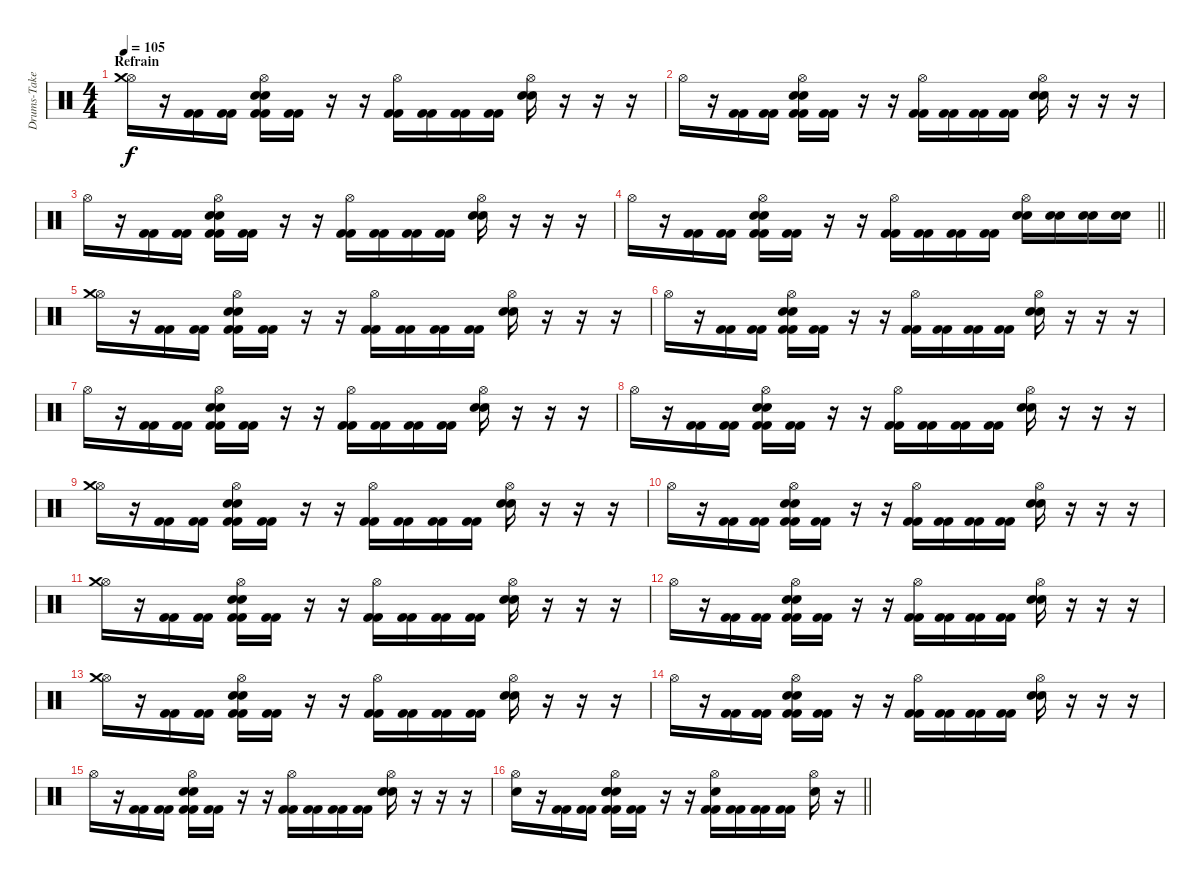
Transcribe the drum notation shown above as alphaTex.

\track ("Drums-Take the midi one!" "Drums-Take") {instrument percussion}
\staff {score}
\articulation defaults
\ts (4 4)
\section ("" "Refrain")
\tempo 105
\clef neutral
\ks c
("Hi-Hat (open)" "Crash medium (hit)").16{dy f} r.16 ("Kick (hit) 2" "Kick (hit) 2").16 ("Kick (hit) 2" "Kick (hit) 2").16 ("Kick (hit) 2" "Kick (hit) 2" "Hi-Hat (open)" "Electric Snare (hit)" "Electric Snare (hit)").16 ("Kick (hit) 2" "Kick (hit) 2").16 r.16 r.16 ("Kick (hit) 2" "Kick (hit) 2" "Hi-Hat (open)").16 ("Kick (hit) 2" "Kick (hit) 2").16 ("Kick (hit) 2" "Kick (hit) 2").16 ("Kick (hit) 2" "Kick (hit) 2").16 ("Hi-Hat (open)" "Electric Snare (hit)" "Electric Snare (hit)").16 r.16 r.16 r.16 |
"Hi-Hat (open)".16 r.16 ("Kick (hit) 2" "Kick (hit) 2").16 ("Kick (hit) 2" "Kick (hit) 2").16 ("Kick (hit) 2" "Kick (hit) 2" "Hi-Hat (open)" "Electric Snare (hit)" "Electric Snare (hit)").16 ("Kick (hit) 2" "Kick (hit) 2").16 r.16 r.16 ("Kick (hit) 2" "Kick (hit) 2" "Hi-Hat (open)").16 ("Kick (hit) 2" "Kick (hit) 2").16 ("Kick (hit) 2" "Kick (hit) 2").16 ("Kick (hit) 2" "Kick (hit) 2").16 ("Hi-Hat (open)" "Electric Snare (hit)" "Electric Snare (hit)").16 r.16 r.16 r.16 |
"Hi-Hat (open)".16 r.16 ("Kick (hit) 2" "Kick (hit) 2").16 ("Kick (hit) 2" "Kick (hit) 2").16 ("Kick (hit) 2" "Kick (hit) 2" "Hi-Hat (open)" "Electric Snare (hit)" "Electric Snare (hit)").16 ("Kick (hit) 2" "Kick (hit) 2").16 r.16 r.16 ("Kick (hit) 2" "Kick (hit) 2" "Hi-Hat (open)").16 ("Kick (hit) 2" "Kick (hit) 2").16 ("Kick (hit) 2" "Kick (hit) 2").16 ("Kick (hit) 2" "Kick (hit) 2").16 ("Hi-Hat (open)" "Electric Snare (hit)" "Electric Snare (hit)").16 r.16 r.16 r.16 |
\barLineRight lightlight "Hi-Hat (open)".16
r.16 ("Kick (hit) 2" "Kick (hit) 2").16 ("Kick (hit) 2" "Kick (hit) 2").16 ("Kick (hit) 2" "Kick (hit) 2" "Hi-Hat (open)" "Electric Snare (hit)" "Electric Snare (hit)").16 ("Kick (hit) 2" "Kick (hit) 2").16 r.16 r.16 ("Kick (hit) 2" "Kick (hit) 2" "Hi-Hat (open)").16 ("Kick (hit) 2" "Kick (hit) 2").16 ("Kick (hit) 2" "Kick (hit) 2").16 ("Kick (hit) 2" "Kick (hit) 2").16 ("Hi-Hat (open)" "Snare (hit) 2" "Snare (hit) 2").16 ("Snare (hit) 2" "Snare (hit) 2").16 ("Snare (hit) 2" "Snare (hit) 2").16 ("Snare (hit) 2" "Snare (hit) 2").16 |
("Hi-Hat (open)" "Crash medium (hit)").16 r.16 ("Kick (hit) 2" "Kick (hit) 2").16 ("Kick (hit) 2" "Kick (hit) 2").16 ("Kick (hit) 2" "Kick (hit) 2" "Hi-Hat (open)" "Electric Snare (hit)" "Electric Snare (hit)").16 ("Kick (hit) 2" "Kick (hit) 2").16 r.16 r.16 ("Kick (hit) 2" "Kick (hit) 2" "Hi-Hat (open)").16 ("Kick (hit) 2" "Kick (hit) 2").16 ("Kick (hit) 2" "Kick (hit) 2").16 ("Kick (hit) 2" "Kick (hit) 2").16 ("Hi-Hat (open)" "Electric Snare (hit)" "Electric Snare (hit)").16 r.16 r.16 r.16 |
"Hi-Hat (open)".16 r.16 ("Kick (hit) 2" "Kick (hit) 2").16 ("Kick (hit) 2" "Kick (hit) 2").16 ("Kick (hit) 2" "Kick (hit) 2" "Hi-Hat (open)" "Electric Snare (hit)" "Electric Snare (hit)").16 ("Kick (hit) 2" "Kick (hit) 2").16 r.16 r.16 ("Kick (hit) 2" "Kick (hit) 2" "Hi-Hat (open)").16 ("Kick (hit) 2" "Kick (hit) 2").16 ("Kick (hit) 2" "Kick (hit) 2").16 ("Kick (hit) 2" "Kick (hit) 2").16 ("Hi-Hat (open)" "Electric Snare (hit)" "Electric Snare (hit)").16 r.16 r.16 r.16 |
"Hi-Hat (open)".16 r.16 ("Kick (hit) 2" "Kick (hit) 2").16 ("Kick (hit) 2" "Kick (hit) 2").16 ("Kick (hit) 2" "Kick (hit) 2" "Hi-Hat (open)" "Electric Snare (hit)" "Electric Snare (hit)").16 ("Kick (hit) 2" "Kick (hit) 2").16 r.16 r.16 ("Kick (hit) 2" "Kick (hit) 2" "Hi-Hat (open)").16 ("Kick (hit) 2" "Kick (hit) 2").16 ("Kick (hit) 2" "Kick (hit) 2").16 ("Kick (hit) 2" "Kick (hit) 2").16 ("Hi-Hat (open)" "Electric Snare (hit)" "Electric Snare (hit)").16 r.16 r.16 r.16 |
"Hi-Hat (open)".16 r.16 ("Kick (hit) 2" "Kick (hit) 2").16 ("Kick (hit) 2" "Kick (hit) 2").16 ("Kick (hit) 2" "Kick (hit) 2" "Hi-Hat (open)" "Electric Snare (hit)" "Electric Snare (hit)").16 ("Kick (hit) 2" "Kick (hit) 2").16 r.16 r.16 ("Kick (hit) 2" "Kick (hit) 2" "Hi-Hat (open)").16 ("Kick (hit) 2" "Kick (hit) 2").16 ("Kick (hit) 2" "Kick (hit) 2").16 ("Kick (hit) 2" "Kick (hit) 2").16 ("Hi-Hat (open)" "Electric Snare (hit)" "Electric Snare (hit)").16 r.16 r.16 r.16 |
("Hi-Hat (open)" "Crash medium (hit)").16 r.16 ("Kick (hit) 2" "Kick (hit) 2").16 ("Kick (hit) 2" "Kick (hit) 2").16 ("Kick (hit) 2" "Kick (hit) 2" "Hi-Hat (open)" "Electric Snare (hit)" "Electric Snare (hit)").16 ("Kick (hit) 2" "Kick (hit) 2").16 r.16 r.16 ("Kick (hit) 2" "Kick (hit) 2" "Hi-Hat (open)").16 ("Kick (hit) 2" "Kick (hit) 2").16 ("Kick (hit) 2" "Kick (hit) 2").16 ("Kick (hit) 2" "Kick (hit) 2").16 ("Hi-Hat (open)" "Electric Snare (hit)" "Electric Snare (hit)").16 r.16 r.16 r.16 |
"Hi-Hat (open)".16 r.16 ("Kick (hit) 2" "Kick (hit) 2").16 ("Kick (hit) 2" "Kick (hit) 2").16 ("Kick (hit) 2" "Kick (hit) 2" "Hi-Hat (open)" "Electric Snare (hit)" "Electric Snare (hit)").16 ("Kick (hit) 2" "Kick (hit) 2").16 r.16 r.16 ("Kick (hit) 2" "Kick (hit) 2" "Hi-Hat (open)").16 ("Kick (hit) 2" "Kick (hit) 2").16 ("Kick (hit) 2" "Kick (hit) 2").16 ("Kick (hit) 2" "Kick (hit) 2").16 ("Hi-Hat (open)" "Electric Snare (hit)" "Electric Snare (hit)").16 r.16 r.16 r.16 |
("Hi-Hat (open)" "Crash medium (hit)").16 r.16 ("Kick (hit) 2" "Kick (hit) 2").16 ("Kick (hit) 2" "Kick (hit) 2").16 ("Kick (hit) 2" "Kick (hit) 2" "Hi-Hat (open)" "Electric Snare (hit)" "Electric Snare (hit)").16 ("Kick (hit) 2" "Kick (hit) 2").16 r.16 r.16 ("Kick (hit) 2" "Kick (hit) 2" "Hi-Hat (open)").16 ("Kick (hit) 2" "Kick (hit) 2").16 ("Kick (hit) 2" "Kick (hit) 2").16 ("Kick (hit) 2" "Kick (hit) 2").16 ("Hi-Hat (open)" "Electric Snare (hit)" "Electric Snare (hit)").16 r.16 r.16 r.16 |
"Hi-Hat (open)".16 r.16 ("Kick (hit) 2" "Kick (hit) 2").16 ("Kick (hit) 2" "Kick (hit) 2").16 ("Kick (hit) 2" "Kick (hit) 2" "Hi-Hat (open)" "Electric Snare (hit)" "Electric Snare (hit)").16 ("Kick (hit) 2" "Kick (hit) 2").16 r.16 r.16 ("Kick (hit) 2" "Kick (hit) 2" "Hi-Hat (open)").16 ("Kick (hit) 2" "Kick (hit) 2").16 ("Kick (hit) 2" "Kick (hit) 2").16 ("Kick (hit) 2" "Kick (hit) 2").16 ("Hi-Hat (open)" "Electric Snare (hit)" "Electric Snare (hit)").16 r.16 r.16 r.16 |
("Hi-Hat (open)" "Crash medium (hit)").16 r.16 ("Kick (hit) 2" "Kick (hit) 2").16 ("Kick (hit) 2" "Kick (hit) 2").16 ("Kick (hit) 2" "Kick (hit) 2" "Hi-Hat (open)" "Electric Snare (hit)" "Electric Snare (hit)").16 ("Kick (hit) 2" "Kick (hit) 2").16 r.16 r.16 ("Kick (hit) 2" "Kick (hit) 2" "Hi-Hat (open)").16 ("Kick (hit) 2" "Kick (hit) 2").16 ("Kick (hit) 2" "Kick (hit) 2").16 ("Kick (hit) 2" "Kick (hit) 2").16 ("Hi-Hat (open)" "Electric Snare (hit)" "Electric Snare (hit)").16 r.16 r.16 r.16 |
"Hi-Hat (open)".16 r.16 ("Kick (hit) 2" "Kick (hit) 2").16 ("Kick (hit) 2" "Kick (hit) 2").16 ("Kick (hit) 2" "Kick (hit) 2" "Hi-Hat (open)" "Electric Snare (hit)" "Electric Snare (hit)").16 ("Kick (hit) 2" "Kick (hit) 2").16 r.16 r.16 ("Kick (hit) 2" "Kick (hit) 2" "Hi-Hat (open)").16 ("Kick (hit) 2" "Kick (hit) 2").16 ("Kick (hit) 2" "Kick (hit) 2").16 ("Kick (hit) 2" "Kick (hit) 2").16 ("Hi-Hat (open)" "Electric Snare (hit)" "Electric Snare (hit)").16 r.16 r.16 r.16 |
"Hi-Hat (open)".16 r.16 ("Kick (hit) 2" "Kick (hit) 2").16 ("Kick (hit) 2" "Kick (hit) 2").16 ("Kick (hit) 2" "Kick (hit) 2" "Hi-Hat (open)" "Electric Snare (hit)" "Electric Snare (hit)").16 ("Kick (hit) 2" "Kick (hit) 2").16 r.16 r.16 ("Kick (hit) 2" "Kick (hit) 2" "Hi-Hat (open)").16 ("Kick (hit) 2" "Kick (hit) 2").16 ("Kick (hit) 2" "Kick (hit) 2").16 ("Kick (hit) 2" "Kick (hit) 2").16 ("Hi-Hat (open)" "Electric Snare (hit)" "Electric Snare (hit)").16 r.16 r.16 r.16 |
\barLineRight lightlight
("Hi-Hat (open)" "Snare (hit) 2").16 r.16 ("Kick (hit) 2" "Kick (hit) 2").16 ("Kick (hit) 2" "Kick (hit) 2").16 ("Kick (hit) 2" "Kick (hit) 2" "Hi-Hat (open)" "Electric Snare (hit)" "Electric Snare (hit)" "Snare (hit) 2").16 ("Kick (hit) 2" "Kick (hit) 2").16 r.16 r.16 ("Kick (hit) 2" "Kick (hit) 2" "Hi-Hat (open)" "Snare (hit) 2").16 ("Kick (hit) 2" "Kick (hit) 2").16 ("Kick (hit) 2" "Kick (hit) 2").16 ("Kick (hit) 2" "Kick (hit) 2").16 ("Hi-Hat (open)" "Snare (hit) 2").16 r.16
